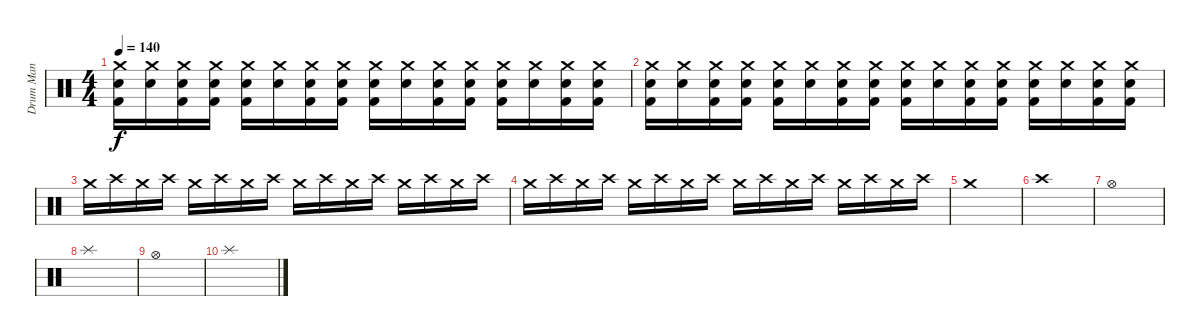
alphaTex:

\track ("Drum Man" "Drum Man") {instrument percussion}
\staff {score}
\articulation defaults
\ts (4 4)
\tempo 140
\clef neutral
\ks c
("Crash medium (hit)" "Snare (hit) 2" "Kick (hit) 2").16{dy f} ("Crash medium (hit)" "Snare (hit) 2").16 ("Crash medium (hit)" "Snare (hit) 2" "Kick (hit) 2").16 ("Crash medium (hit)" "Snare (hit) 2" "Kick (hit) 2").16 ("Crash medium (hit)" "Snare (hit) 2" "Kick (hit) 2").16 ("Crash medium (hit)" "Snare (hit) 2").16 ("Crash medium (hit)" "Snare (hit) 2" "Kick (hit) 2").16 ("Crash medium (hit)" "Snare (hit) 2" "Kick (hit) 2").16 ("Crash medium (hit)" "Snare (hit) 2" "Kick (hit) 2").16 ("Crash medium (hit)" "Snare (hit) 2").16 ("Crash medium (hit)" "Snare (hit) 2" "Kick (hit) 2").16 ("Crash medium (hit)" "Snare (hit) 2" "Kick (hit) 2").16 ("Crash medium (hit)" "Snare (hit) 2" "Kick (hit) 2").16 ("Crash medium (hit)" "Snare (hit) 2").16 ("Crash medium (hit)" "Snare (hit) 2" "Kick (hit) 2").16 ("Crash medium (hit)" "Snare (hit) 2" "Kick (hit) 2").16 |
("Crash medium (hit)" "Snare (hit) 2" "Kick (hit) 2").16 ("Crash medium (hit)" "Snare (hit) 2").16 ("Crash medium (hit)" "Snare (hit) 2" "Kick (hit) 2").16 ("Crash medium (hit)" "Snare (hit) 2" "Kick (hit) 2").16 ("Crash medium (hit)" "Snare (hit) 2" "Kick (hit) 2").16 ("Crash medium (hit)" "Snare (hit) 2").16 ("Crash medium (hit)" "Snare (hit) 2" "Kick (hit) 2").16 ("Crash medium (hit)" "Snare (hit) 2" "Kick (hit) 2").16 ("Crash medium (hit)" "Snare (hit) 2" "Kick (hit) 2").16 ("Crash medium (hit)" "Snare (hit) 2").16 ("Crash medium (hit)" "Snare (hit) 2" "Kick (hit) 2").16 ("Crash medium (hit)" "Snare (hit) 2" "Kick (hit) 2").16 ("Crash medium (hit)" "Snare (hit) 2" "Kick (hit) 2").16 ("Crash medium (hit)" "Snare (hit) 2").16 ("Crash medium (hit)" "Snare (hit) 2" "Kick (hit) 2").16 ("Crash medium (hit)" "Snare (hit) 2" "Kick (hit) 2").16 |
"Crash medium (hit)".16 "Crash high (hit)".16 "Crash medium (hit)".16 "Crash high (hit)".16 "Crash medium (hit)".16 "Crash high (hit)".16 "Crash medium (hit)".16 "Crash high (hit)".16 "Crash medium (hit)".16 "Crash high (hit)".16 "Crash medium (hit)".16 "Crash high (hit)".16 "Crash medium (hit)".16 "Crash high (hit)".16 "Crash medium (hit)".16 "Crash high (hit)".16 |
"Crash medium (hit)".16 "Crash high (hit)".16 "Crash medium (hit)".16 "Crash high (hit)".16 "Crash medium (hit)".16 "Crash high (hit)".16 "Crash medium (hit)".16 "Crash high (hit)".16 "Crash medium (hit)".16 "Crash high (hit)".16 "Crash medium (hit)".16 "Crash high (hit)".16 "Crash medium (hit)".16 "Crash high (hit)".16 "Crash medium (hit)".16 "Crash high (hit)".16 |
"Crash medium (hit)".1 |
"Crash high (hit)".1{volume 0} |
"Hi-Hat (open)".1 |
"Splash (hit)".1 |
"Hi-Hat (open)".1 |
"Splash (hit)".1
